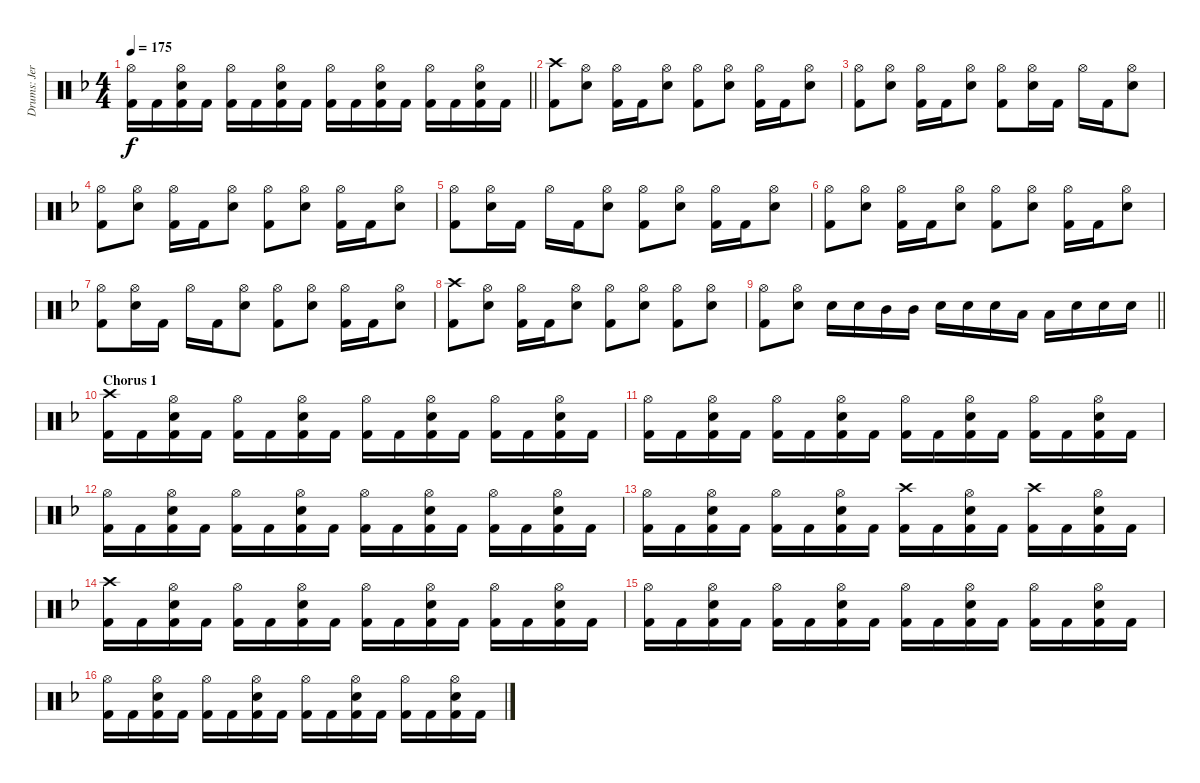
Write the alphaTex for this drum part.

\track ("Drums: Jere Luokkamäki" "Drums: Jer") {instrument percussion}
\staff {score}
\articulation defaults
\ts (4 4)
\tempo 175
\clef neutral
\barLineRight lightlight
\ks dminor
("Hi-Hat (open)" "Kick (hit) 2").16{dy f} "Kick (hit) 2".16 ("Hi-Hat (open)" "Electric Snare (hit)" "Kick (hit) 2").16 "Kick (hit) 2".16 ("Hi-Hat (open)" "Kick (hit) 2").16 "Kick (hit) 2".16 ("Hi-Hat (open)" "Electric Snare (hit)" "Kick (hit) 2").16 "Kick (hit) 2".16 ("Hi-Hat (open)" "Kick (hit) 2").16 "Kick (hit) 2".16 ("Hi-Hat (open)" "Electric Snare (hit)" "Kick (hit) 2").16 "Kick (hit) 2".16 ("Hi-Hat (open)" "Kick (hit) 2").16 "Kick (hit) 2".16 ("Hi-Hat (open)" "Electric Snare (hit)" "Kick (hit) 2").16 "Kick (hit) 2".16 |
("Crash high (hit)" "Kick (hit) 2").8 ("Hi-Hat (open)" "Electric Snare (hit)").8 ("Hi-Hat (open)" "Kick (hit) 2").16 "Kick (hit) 2".16 ("Hi-Hat (open)" "Electric Snare (hit)").8 ("Hi-Hat (open)" "Kick (hit) 2").8 ("Hi-Hat (open)" "Electric Snare (hit)").8 ("Hi-Hat (open)" "Kick (hit) 2").16 "Kick (hit) 2".16 ("Hi-Hat (open)" "Electric Snare (hit)").8 |
("Hi-Hat (open)" "Kick (hit) 2").8 ("Hi-Hat (open)" "Electric Snare (hit)").8 ("Hi-Hat (open)" "Kick (hit) 2").16 "Kick (hit) 2".16 ("Hi-Hat (open)" "Electric Snare (hit)").8 ("Hi-Hat (open)" "Kick (hit) 2").8 ("Hi-Hat (open)" "Electric Snare (hit)").16 "Kick (hit) 2".16 "Hi-Hat (open)".16 "Kick (hit) 2".16 ("Hi-Hat (open)" "Electric Snare (hit)").8 |
("Hi-Hat (open)" "Kick (hit) 2").8 ("Hi-Hat (open)" "Electric Snare (hit)").8 ("Hi-Hat (open)" "Kick (hit) 2").16 "Kick (hit) 2".16 ("Hi-Hat (open)" "Electric Snare (hit)").8 ("Hi-Hat (open)" "Kick (hit) 2").8 ("Hi-Hat (open)" "Electric Snare (hit)").8 ("Hi-Hat (open)" "Kick (hit) 2").16 "Kick (hit) 2".16 ("Hi-Hat (open)" "Electric Snare (hit)").8 |
("Hi-Hat (open)" "Kick (hit) 2").8 ("Hi-Hat (open)" "Electric Snare (hit)").16 "Kick (hit) 2".16 "Hi-Hat (open)".16 "Kick (hit) 2".16 ("Hi-Hat (open)" "Electric Snare (hit)").8 ("Hi-Hat (open)" "Kick (hit) 2").8 ("Hi-Hat (open)" "Electric Snare (hit)").8 ("Hi-Hat (open)" "Kick (hit) 2").16 "Kick (hit) 2".16 ("Hi-Hat (open)" "Electric Snare (hit)").8 |
("Hi-Hat (open)" "Kick (hit) 2").8 ("Hi-Hat (open)" "Electric Snare (hit)").8 ("Hi-Hat (open)" "Kick (hit) 2").16 "Kick (hit) 2".16 ("Hi-Hat (open)" "Electric Snare (hit)").8 ("Hi-Hat (open)" "Kick (hit) 2").8 ("Hi-Hat (open)" "Electric Snare (hit)").8 ("Hi-Hat (open)" "Kick (hit) 2").16 "Kick (hit) 2".16 ("Hi-Hat (open)" "Electric Snare (hit)").8 |
("Hi-Hat (open)" "Kick (hit) 2").8 ("Hi-Hat (open)" "Electric Snare (hit)").16 "Kick (hit) 2".16 "Hi-Hat (open)".16 "Kick (hit) 2".16 ("Hi-Hat (open)" "Electric Snare (hit)").8 ("Hi-Hat (open)" "Kick (hit) 2").8 ("Hi-Hat (open)" "Electric Snare (hit)").8 ("Hi-Hat (open)" "Kick (hit) 2").16 "Kick (hit) 2".16 ("Hi-Hat (open)" "Electric Snare (hit)").8 |
("Crash high (hit)" "Kick (hit) 2").8 ("Hi-Hat (open)" "Electric Snare (hit)").8 ("Hi-Hat (open)" "Kick (hit) 2").16 "Kick (hit) 2".16 ("Hi-Hat (open)" "Electric Snare (hit)").8 ("Hi-Hat (open)" "Kick (hit) 2").8 ("Hi-Hat (open)" "Electric Snare (hit)").8 ("Hi-Hat (open)" "Kick (hit) 2").8 ("Hi-Hat (open)" "Electric Snare (hit)").8 |
\barLineRight lightlight
("Hi-Hat (open)" "Kick (hit) 2").8 ("Hi-Hat (open)" "Electric Snare (hit)").8 "Electric Snare (hit)".16 "Electric Snare (hit)".16 "Mid Tom (hit)".16 "Mid Tom (hit)".16 "Electric Snare (hit)".16 "Electric Snare (hit)".16 "Electric Snare (hit)".16 "Low Tom (hit)".16 "Low Tom (hit)".16 "Electric Snare (hit)".16 "Electric Snare (hit)".16 "Electric Snare (hit)".16 |
\section ("" "Chorus 1")
("Crash high (hit)" "Kick (hit) 2").16 "Kick (hit) 2".16 ("Hi-Hat (open)" "Electric Snare (hit)" "Kick (hit) 2").16 "Kick (hit) 2".16 ("Hi-Hat (open)" "Kick (hit) 2").16 "Kick (hit) 2".16 ("Hi-Hat (open)" "Electric Snare (hit)" "Kick (hit) 2").16 "Kick (hit) 2".16 ("Hi-Hat (open)" "Kick (hit) 2").16 "Kick (hit) 2".16 ("Hi-Hat (open)" "Electric Snare (hit)" "Kick (hit) 2").16 "Kick (hit) 2".16 ("Hi-Hat (open)" "Kick (hit) 2").16 "Kick (hit) 2".16 ("Hi-Hat (open)" "Electric Snare (hit)" "Kick (hit) 2").16 "Kick (hit) 2".16 |
("Hi-Hat (open)" "Kick (hit) 2").16 "Kick (hit) 2".16 ("Hi-Hat (open)" "Electric Snare (hit)" "Kick (hit) 2").16 "Kick (hit) 2".16 ("Hi-Hat (open)" "Kick (hit) 2").16 "Kick (hit) 2".16 ("Hi-Hat (open)" "Electric Snare (hit)" "Kick (hit) 2").16 "Kick (hit) 2".16 ("Hi-Hat (open)" "Kick (hit) 2").16 "Kick (hit) 2".16 ("Hi-Hat (open)" "Electric Snare (hit)" "Kick (hit) 2").16 "Kick (hit) 2".16 ("Hi-Hat (open)" "Kick (hit) 2").16 "Kick (hit) 2".16 ("Hi-Hat (open)" "Electric Snare (hit)" "Kick (hit) 2").16 "Kick (hit) 2".16 |
("Hi-Hat (open)" "Kick (hit) 2").16 "Kick (hit) 2".16 ("Hi-Hat (open)" "Electric Snare (hit)" "Kick (hit) 2").16 "Kick (hit) 2".16 ("Hi-Hat (open)" "Kick (hit) 2").16 "Kick (hit) 2".16 ("Hi-Hat (open)" "Electric Snare (hit)" "Kick (hit) 2").16 "Kick (hit) 2".16 ("Hi-Hat (open)" "Kick (hit) 2").16 "Kick (hit) 2".16 ("Hi-Hat (open)" "Electric Snare (hit)" "Kick (hit) 2").16 "Kick (hit) 2".16 ("Hi-Hat (open)" "Kick (hit) 2").16 "Kick (hit) 2".16 ("Hi-Hat (open)" "Electric Snare (hit)" "Kick (hit) 2").16 "Kick (hit) 2".16 |
("Hi-Hat (open)" "Kick (hit) 2").16 "Kick (hit) 2".16 ("Hi-Hat (open)" "Electric Snare (hit)" "Kick (hit) 2").16 "Kick (hit) 2".16 ("Hi-Hat (open)" "Kick (hit) 2").16 "Kick (hit) 2".16 ("Hi-Hat (open)" "Electric Snare (hit)" "Kick (hit) 2").16 "Kick (hit) 2".16 ("Crash high (hit)" "Kick (hit) 2").16 "Kick (hit) 2".16 ("Hi-Hat (open)" "Electric Snare (hit)" "Kick (hit) 2").16 "Kick (hit) 2".16 ("Crash high (hit)" "Kick (hit) 2").16 "Kick (hit) 2".16 ("Hi-Hat (open)" "Electric Snare (hit)" "Kick (hit) 2").16 "Kick (hit) 2".16 |
("Crash high (hit)" "Kick (hit) 2").16 "Kick (hit) 2".16 ("Hi-Hat (open)" "Electric Snare (hit)" "Kick (hit) 2").16 "Kick (hit) 2".16 ("Hi-Hat (open)" "Kick (hit) 2").16 "Kick (hit) 2".16 ("Hi-Hat (open)" "Electric Snare (hit)" "Kick (hit) 2").16 "Kick (hit) 2".16 ("Hi-Hat (open)" "Kick (hit) 2").16 "Kick (hit) 2".16 ("Hi-Hat (open)" "Electric Snare (hit)" "Kick (hit) 2").16 "Kick (hit) 2".16 ("Hi-Hat (open)" "Kick (hit) 2").16 "Kick (hit) 2".16 ("Hi-Hat (open)" "Electric Snare (hit)" "Kick (hit) 2").16 "Kick (hit) 2".16 |
("Hi-Hat (open)" "Kick (hit) 2").16 "Kick (hit) 2".16 ("Hi-Hat (open)" "Electric Snare (hit)" "Kick (hit) 2").16 "Kick (hit) 2".16 ("Hi-Hat (open)" "Kick (hit) 2").16 "Kick (hit) 2".16 ("Hi-Hat (open)" "Electric Snare (hit)" "Kick (hit) 2").16 "Kick (hit) 2".16 ("Hi-Hat (open)" "Kick (hit) 2").16 "Kick (hit) 2".16 ("Hi-Hat (open)" "Electric Snare (hit)" "Kick (hit) 2").16 "Kick (hit) 2".16 ("Hi-Hat (open)" "Kick (hit) 2").16 "Kick (hit) 2".16 ("Hi-Hat (open)" "Electric Snare (hit)" "Kick (hit) 2").16 "Kick (hit) 2".16 |
("Hi-Hat (open)" "Kick (hit) 2").16 "Kick (hit) 2".16 ("Hi-Hat (open)" "Electric Snare (hit)" "Kick (hit) 2").16 "Kick (hit) 2".16 ("Hi-Hat (open)" "Kick (hit) 2").16 "Kick (hit) 2".16 ("Hi-Hat (open)" "Electric Snare (hit)" "Kick (hit) 2").16 "Kick (hit) 2".16 ("Hi-Hat (open)" "Kick (hit) 2").16 "Kick (hit) 2".16 ("Hi-Hat (open)" "Electric Snare (hit)" "Kick (hit) 2").16 "Kick (hit) 2".16 ("Hi-Hat (open)" "Kick (hit) 2").16 "Kick (hit) 2".16 ("Hi-Hat (open)" "Electric Snare (hit)" "Kick (hit) 2").16 "Kick (hit) 2".16
